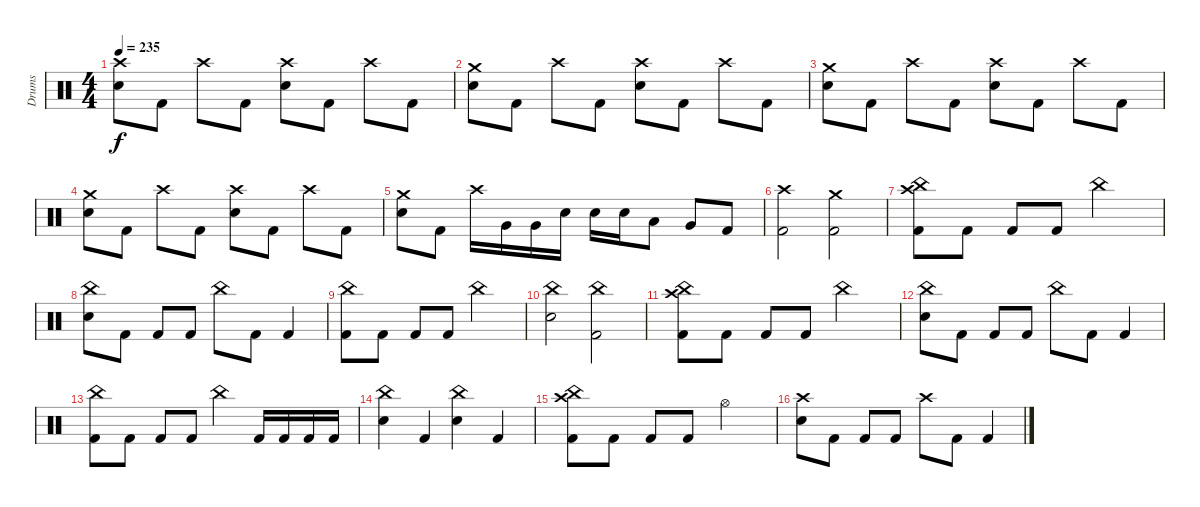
\track ("Drums" "Drums") {instrument percussion}
\staff {score}
\articulation defaults
\ts (4 4)
\tempo 235
\clef neutral
\ks c
("Crash high (hit)" "Electric Snare (hit)").8{dy f} "Kick (hit) 2".8 "Crash high (hit)".8 "Kick (hit) 2".8 ("Crash high (hit)" "Electric Snare (hit)").8 "Kick (hit) 2".8 "Crash high (hit)".8 "Kick (hit) 2".8 |
("Crash medium (hit)" "Electric Snare (hit)").8 "Kick (hit) 2".8 "Crash high (hit)".8 "Kick (hit) 2".8 ("Crash high (hit)" "Electric Snare (hit)").8 "Kick (hit) 2".8 "Crash high (hit)".8 "Kick (hit) 2".8 |
("Crash medium (hit)" "Electric Snare (hit)").8 "Kick (hit) 2".8 "Crash high (hit)".8 "Kick (hit) 2".8 ("Crash high (hit)" "Electric Snare (hit)").8 "Kick (hit) 2".8 "Crash high (hit)".8 "Kick (hit) 2".8 |
("Crash medium (hit)" "Electric Snare (hit)").8 "Kick (hit) 2".8 "Crash high (hit)".8 "Kick (hit) 2".8 ("Crash high (hit)" "Electric Snare (hit)").8 "Kick (hit) 2".8 "Crash high (hit)".8 "Kick (hit) 2".8 |
("Crash medium (hit)" "Electric Snare (hit)").8 "Kick (hit) 2".8 "Crash high (hit)".16 "Very Low Tom (hit)".16 "Very Low Tom (hit)".16 "Electric Snare (hit)".16 "Electric Snare (hit)".16 "Electric Snare (hit)".16 "Low Tom (hit)".8 "Very Low Tom (hit)".8 "Kick (hit) 2".8 |
("Crash high (hit)" "Kick (hit) 2").2 ("Crash medium (hit)" "Kick (hit) 2").2 |
("China (hit)" "Crash high (hit)" "Kick (hit) 2").8 "Kick (hit) 2".8 "Kick (hit) 2".8 "Kick (hit) 2".8 "China (hit)".2 |
("China (hit)" "Electric Snare (hit)").8 "Kick (hit) 2".8 "Kick (hit) 2".8 "Kick (hit) 2".8 "China (hit)".8 "Kick (hit) 2".8 "Kick (hit) 2".4 |
("China (hit)" "Kick (hit) 2").8 "Kick (hit) 2".8 "Kick (hit) 2".8 "Kick (hit) 2".8 "China (hit)".2 |
("China (hit)" "Electric Snare (hit)").2 ("China (hit)" "Kick (hit) 2").2 |
("China (hit)" "Crash high (hit)" "Kick (hit) 2").8 "Kick (hit) 2".8 "Kick (hit) 2".8 "Kick (hit) 2".8 "China (hit)".2 |
("China (hit)" "Electric Snare (hit)").8 "Kick (hit) 2".8 "Kick (hit) 2".8 "Kick (hit) 2".8 "China (hit)".8 "Kick (hit) 2".8 "Kick (hit) 2".4 |
("China (hit)" "Kick (hit) 2").8 "Kick (hit) 2".8 "Kick (hit) 2".8 "Kick (hit) 2".8 "China (hit)".4 "Kick (hit) 2".16 "Kick (hit) 2".16 "Kick (hit) 2".16 "Kick (hit) 2".16 |
("China (hit)" "Electric Snare (hit)").4 "Kick (hit) 2".4 ("China (hit)" "Electric Snare (hit)").4 "Kick (hit) 2".4 |
("China (hit)" "Crash high (hit)" "Kick (hit) 2").8 "Kick (hit) 2".8 "Kick (hit) 2".8 "Kick (hit) 2".8 "Hi-Hat (open)".2 |
("Crash high (hit)" "Electric Snare (hit)").8 "Kick (hit) 2".8 "Kick (hit) 2".8 "Kick (hit) 2".8 "Crash high (hit)".8 "Kick (hit) 2".8 "Kick (hit) 2".4
